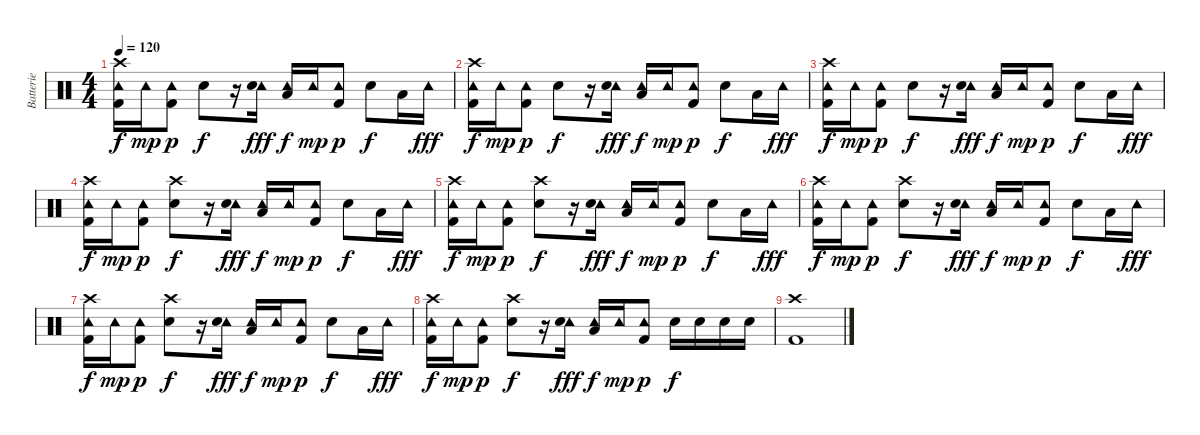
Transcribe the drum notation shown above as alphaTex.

\track ("Batterie" "Batterie") {instrument percussion}
\staff {score}
\articulation defaults
\ts (4 4)
\tempo 120
\clef neutral
\ks c
("Tambourine (hit)" "Kick (hit) 2" "Crash high (hit)").16{dy f} "Tambourine (hit)".16{dy mp} ("Tambourine (hit)" "Kick (hit) 2").8{dy p} "Electric Snare (hit)".8{dy f} r.16 ("Tambourine (hit)" "Electric Snare (hit)").16{dy fff} ("Tambourine (hit)" "Low Tom (hit)").16{dy f} "Tambourine (hit)".16{dy mp} ("Tambourine (hit)" "Kick (hit) 2").8{dy p} "Electric Snare (hit)".8{dy f} "Low Tom (hit)".16 "Tambourine (hit)".16{dy fff} |
("Tambourine (hit)" "Kick (hit) 2" "Crash high (hit)").16{dy f} "Tambourine (hit)".16{dy mp} ("Tambourine (hit)" "Kick (hit) 2").8{dy p} "Electric Snare (hit)".8{dy f} r.16 ("Tambourine (hit)" "Electric Snare (hit)").16{dy fff} ("Tambourine (hit)" "Low Tom (hit)").16{dy f} "Tambourine (hit)".16{dy mp} ("Tambourine (hit)" "Kick (hit) 2").8{dy p} "Electric Snare (hit)".8{dy f} "Low Tom (hit)".16 "Tambourine (hit)".16{dy fff} |
("Tambourine (hit)" "Kick (hit) 2" "Crash high (hit)").16{dy f} "Tambourine (hit)".16{dy mp} ("Tambourine (hit)" "Kick (hit) 2").8{dy p} "Electric Snare (hit)".8{dy f} r.16 ("Tambourine (hit)" "Electric Snare (hit)").16{dy fff} ("Tambourine (hit)" "Low Tom (hit)").16{dy f} "Tambourine (hit)".16{dy mp} ("Tambourine (hit)" "Kick (hit) 2").8{dy p} "Electric Snare (hit)".8{dy f} "Low Tom (hit)".16 "Tambourine (hit)".16{dy fff} |
("Tambourine (hit)" "Kick (hit) 2" "Crash high (hit)").16{dy f} "Tambourine (hit)".16{dy mp} ("Tambourine (hit)" "Kick (hit) 2").8{dy p} ("Crash high (hit)" "Electric Snare (hit)").8{dy f} r.16 ("Tambourine (hit)" "Electric Snare (hit)").16{dy fff} ("Tambourine (hit)" "Low Tom (hit)").16{dy f} "Tambourine (hit)".16{dy mp} ("Tambourine (hit)" "Kick (hit) 2").8{dy p} "Electric Snare (hit)".8{dy f} "Low Tom (hit)".16 "Tambourine (hit)".16{dy fff} |
("Tambourine (hit)" "Kick (hit) 2" "Crash high (hit)").16{dy f} "Tambourine (hit)".16{dy mp} ("Tambourine (hit)" "Kick (hit) 2").8{dy p} ("Crash high (hit)" "Electric Snare (hit)").8{dy f} r.16 ("Tambourine (hit)" "Electric Snare (hit)").16{dy fff} ("Tambourine (hit)" "Low Tom (hit)").16{dy f} "Tambourine (hit)".16{dy mp} ("Tambourine (hit)" "Kick (hit) 2").8{dy p} "Electric Snare (hit)".8{dy f} "Low Tom (hit)".16 "Tambourine (hit)".16{dy fff} |
("Tambourine (hit)" "Kick (hit) 2" "Crash high (hit)").16{dy f} "Tambourine (hit)".16{dy mp} ("Tambourine (hit)" "Kick (hit) 2").8{dy p} ("Crash high (hit)" "Electric Snare (hit)").8{dy f} r.16 ("Tambourine (hit)" "Electric Snare (hit)").16{dy fff} ("Tambourine (hit)" "Low Tom (hit)").16{dy f} "Tambourine (hit)".16{dy mp} ("Tambourine (hit)" "Kick (hit) 2").8{dy p} "Electric Snare (hit)".8{dy f} "Low Tom (hit)".16 "Tambourine (hit)".16{dy fff} |
("Tambourine (hit)" "Kick (hit) 2" "Crash high (hit)").16{dy f} "Tambourine (hit)".16{dy mp} ("Tambourine (hit)" "Kick (hit) 2").8{dy p} ("Crash high (hit)" "Electric Snare (hit)").8{dy f} r.16 ("Tambourine (hit)" "Electric Snare (hit)").16{dy fff} ("Tambourine (hit)" "Low Tom (hit)").16{dy f} "Tambourine (hit)".16{dy mp} ("Tambourine (hit)" "Kick (hit) 2").8{dy p} "Electric Snare (hit)".8{dy f} "Low Tom (hit)".16 "Tambourine (hit)".16{dy fff} |
("Tambourine (hit)" "Kick (hit) 2" "Crash high (hit)").16{dy f} "Tambourine (hit)".16{dy mp} ("Tambourine (hit)" "Kick (hit) 2").8{dy p} ("Crash high (hit)" "Electric Snare (hit)").8{dy f} r.16 ("Tambourine (hit)" "Electric Snare (hit)").16{dy fff} ("Tambourine (hit)" "Low Tom (hit)").16{dy f} "Tambourine (hit)".16{dy mp} ("Tambourine (hit)" "Kick (hit) 2").8{dy p} "Electric Snare (hit)".16{dy f} "Electric Snare (hit)".16 "Electric Snare (hit)".16 "Electric Snare (hit)".16 |
("Crash high (hit)" "Kick (hit) 2").1
